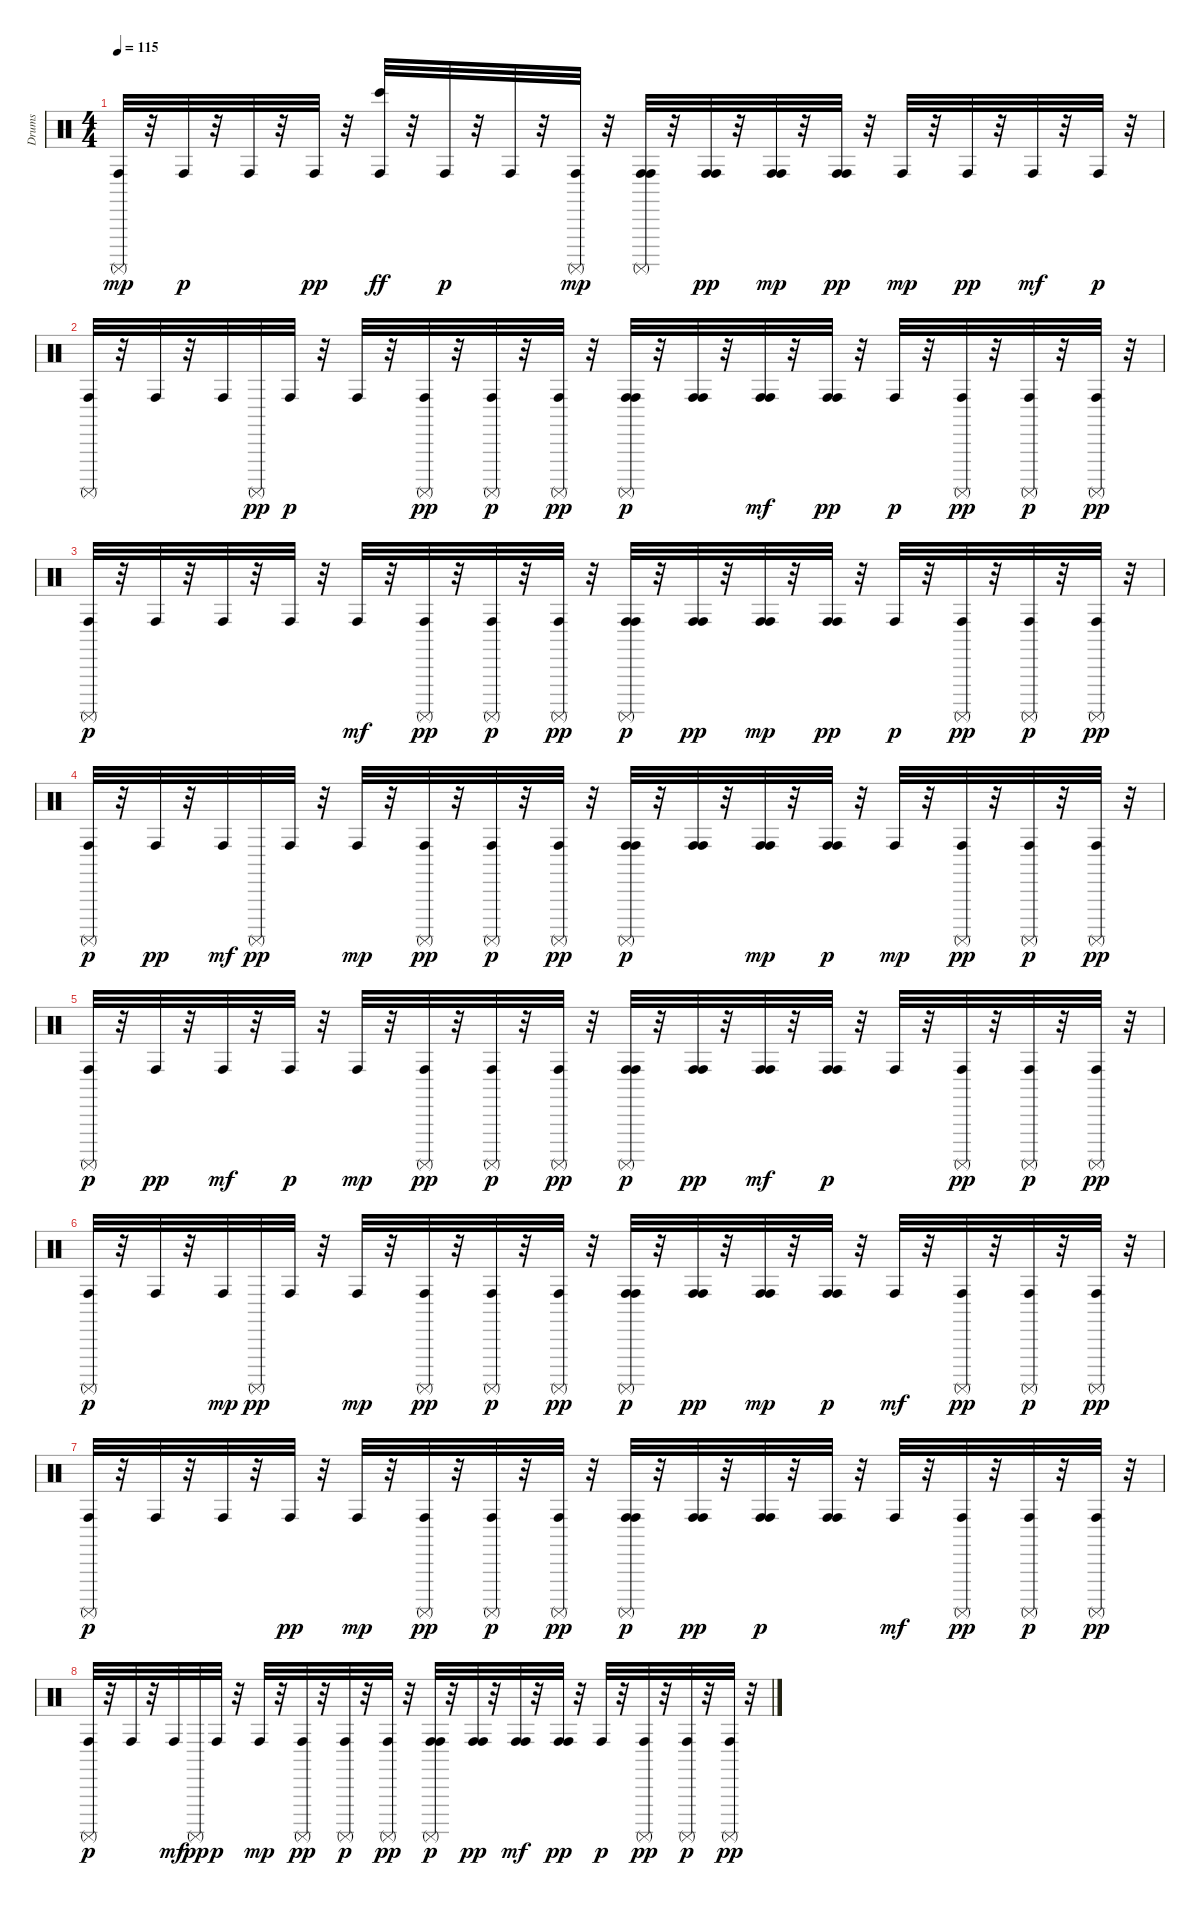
\track ("Drums" "Drums") {instrument percussion}
\staff {score}
\articulation defaults
\ts (4 4)
\tempo 115
\clef neutral
\ks c
("Conga high (hit)" "Surdo (mute)").32{dy mp} r.32 "Conga high (hit)".32{dy p} r.32 "Conga high (hit)".32 r.32 "Conga high (hit)".32{dy pp} r.32 ("Conga high (hit)" "Bongo High (hit)").32{dy ff} r.32 "Conga high (hit)".32{dy p} r.32 "Conga high (hit)".32 r.32 ("Conga high (hit)" "Surdo (mute)").32{dy mp} r.32 ("Conga high (hit)" "Conga high (hit)" "Surdo (mute)").32 r.32 ("Conga high (hit)" "Conga high (hit)").32{dy pp} r.32 ("Conga high (hit)" "Conga high (hit)").32{dy mp} r.32 ("Conga high (hit)" "Conga high (hit)").32{dy pp} r.32 "Conga high (hit)".32{dy mp} r.32 "Conga high (hit)".32{dy pp} r.32 "Conga high (hit)".32{dy mf} r.32 "Conga high (hit)".32{dy p} r.32 |
("Conga high (hit)" "Surdo (mute)").32 r.32 "Conga high (hit)".32 r.32 "Conga high (hit)".32 "Surdo (mute)".32{dy pp} "Conga high (hit)".32{dy p} r.32 "Conga high (hit)".32 r.32 ("Conga high (hit)" "Surdo (mute)").32{dy pp} r.32 ("Conga high (hit)" "Surdo (mute)").32{dy p} r.32 ("Conga high (hit)" "Surdo (mute)").32{dy pp} r.32 ("Conga high (hit)" "Conga high (hit)" "Surdo (mute)").32{dy p} r.32 ("Conga high (hit)" "Conga high (hit)").32 r.32 ("Conga high (hit)" "Conga high (hit)").32{dy mf} r.32 ("Conga high (hit)" "Conga high (hit)").32{dy pp} r.32 "Conga high (hit)".32{dy p} r.32 ("Conga high (hit)" "Surdo (mute)").32{dy pp} r.32 ("Conga high (hit)" "Surdo (mute)").32{dy p} r.32 ("Conga high (hit)" "Surdo (mute)").32{dy pp} r.32 |
("Conga high (hit)" "Surdo (mute)").32{dy p} r.32 "Conga high (hit)".32 r.32 "Conga high (hit)".32 r.32 "Conga high (hit)".32 r.32 "Conga high (hit)".32{dy mf} r.32 ("Conga high (hit)" "Surdo (mute)").32{dy pp} r.32 ("Conga high (hit)" "Surdo (mute)").32{dy p} r.32 ("Conga high (hit)" "Surdo (mute)").32{dy pp} r.32 ("Conga high (hit)" "Conga high (hit)" "Surdo (mute)").32{dy p} r.32 ("Conga high (hit)" "Conga high (hit)").32{dy pp} r.32 ("Conga high (hit)" "Conga high (hit)").32{dy mp} r.32 ("Conga high (hit)" "Conga high (hit)").32{dy pp} r.32 "Conga high (hit)".32{dy p} r.32 ("Conga high (hit)" "Surdo (mute)").32{dy pp} r.32 ("Conga high (hit)" "Surdo (mute)").32{dy p} r.32 ("Conga high (hit)" "Surdo (mute)").32{dy pp} r.32 |
("Conga high (hit)" "Surdo (mute)").32{dy p} r.32 "Conga high (hit)".32{dy pp} r.32 "Conga high (hit)".32{dy mf} "Surdo (mute)".32{dy pp} "Conga high (hit)".32 r.32 "Conga high (hit)".32{dy mp} r.32 ("Conga high (hit)" "Surdo (mute)").32{dy pp} r.32 ("Conga high (hit)" "Surdo (mute)").32{dy p} r.32 ("Conga high (hit)" "Surdo (mute)").32{dy pp} r.32 ("Conga high (hit)" "Conga high (hit)" "Surdo (mute)").32{dy p} r.32 ("Conga high (hit)" "Conga high (hit)").32 r.32 ("Conga high (hit)" "Conga high (hit)").32{dy mp} r.32 ("Conga high (hit)" "Conga high (hit)").32{dy p} r.32 "Conga high (hit)".32{dy mp} r.32 ("Conga high (hit)" "Surdo (mute)").32{dy pp} r.32 ("Conga high (hit)" "Surdo (mute)").32{dy p} r.32 ("Conga high (hit)" "Surdo (mute)").32{dy pp} r.32 |
("Conga high (hit)" "Surdo (mute)").32{dy p} r.32 "Conga high (hit)".32{dy pp} r.32 "Conga high (hit)".32{dy mf} r.32 "Conga high (hit)".32{dy p} r.32 "Conga high (hit)".32{dy mp} r.32 ("Conga high (hit)" "Surdo (mute)").32{dy pp} r.32 ("Conga high (hit)" "Surdo (mute)").32{dy p} r.32 ("Conga high (hit)" "Surdo (mute)").32{dy pp} r.32 ("Conga high (hit)" "Conga high (hit)" "Surdo (mute)").32{dy p} r.32 ("Conga high (hit)" "Conga high (hit)").32{dy pp} r.32 ("Conga high (hit)" "Conga high (hit)").32{dy mf} r.32 ("Conga high (hit)" "Conga high (hit)").32{dy p} r.32 "Conga high (hit)".32 r.32 ("Conga high (hit)" "Surdo (mute)").32{dy pp} r.32 ("Conga high (hit)" "Surdo (mute)").32{dy p} r.32 ("Conga high (hit)" "Surdo (mute)").32{dy pp} r.32 |
("Conga high (hit)" "Surdo (mute)").32{dy p} r.32 "Conga high (hit)".32 r.32 "Conga high (hit)".32{dy mp} "Surdo (mute)".32{dy pp} "Conga high (hit)".32 r.32 "Conga high (hit)".32{dy mp} r.32 ("Conga high (hit)" "Surdo (mute)").32{dy pp} r.32 ("Conga high (hit)" "Surdo (mute)").32{dy p} r.32 ("Conga high (hit)" "Surdo (mute)").32{dy pp} r.32 ("Conga high (hit)" "Conga high (hit)" "Surdo (mute)").32{dy p} r.32 ("Conga high (hit)" "Conga high (hit)").32{dy pp} r.32 ("Conga high (hit)" "Conga high (hit)").32{dy mp} r.32 ("Conga high (hit)" "Conga high (hit)").32{dy p} r.32 "Conga high (hit)".32{dy mf} r.32 ("Conga high (hit)" "Surdo (mute)").32{dy pp} r.32 ("Conga high (hit)" "Surdo (mute)").32{dy p} r.32 ("Conga high (hit)" "Surdo (mute)").32{dy pp} r.32 |
("Conga high (hit)" "Surdo (mute)").32{dy p} r.32 "Conga high (hit)".32 r.32 "Conga high (hit)".32 r.32 "Conga high (hit)".32{dy pp} r.32 "Conga high (hit)".32{dy mp} r.32 ("Conga high (hit)" "Surdo (mute)").32{dy pp} r.32 ("Conga high (hit)" "Surdo (mute)").32{dy p} r.32 ("Conga high (hit)" "Surdo (mute)").32{dy pp} r.32 ("Conga high (hit)" "Conga high (hit)" "Surdo (mute)").32{dy p} r.32 ("Conga high (hit)" "Conga high (hit)").32{dy pp} r.32 ("Conga high (hit)" "Conga high (hit)").32{dy p} r.32 ("Conga high (hit)" "Conga high (hit)").32 r.32 "Conga high (hit)".32{dy mf} r.32 ("Conga high (hit)" "Surdo (mute)").32{dy pp} r.32 ("Conga high (hit)" "Surdo (mute)").32{dy p} r.32 ("Conga high (hit)" "Surdo (mute)").32{dy pp} r.32 |
("Conga high (hit)" "Surdo (mute)").32{dy p} r.32 "Conga high (hit)".32 r.32 "Conga high (hit)".32{dy mf} "Surdo (mute)".32{dy pp} "Conga high (hit)".32{dy p} r.32 "Conga high (hit)".32{dy mp} r.32 ("Conga high (hit)" "Surdo (mute)").32{dy pp} r.32 ("Conga high (hit)" "Surdo (mute)").32{dy p} r.32 ("Conga high (hit)" "Surdo (mute)").32{dy pp} r.32 ("Conga high (hit)" "Conga high (hit)" "Surdo (mute)").32{dy p} r.32 ("Conga high (hit)" "Conga high (hit)").32{dy pp} r.32 ("Conga high (hit)" "Conga high (hit)").32{dy mf} r.32 ("Conga high (hit)" "Conga high (hit)").32{dy pp} r.32 "Conga high (hit)".32{dy p} r.32 ("Conga high (hit)" "Surdo (mute)").32{dy pp} r.32 ("Conga high (hit)" "Surdo (mute)").32{dy p} r.32 ("Conga high (hit)" "Surdo (mute)").32{dy pp} r.32
